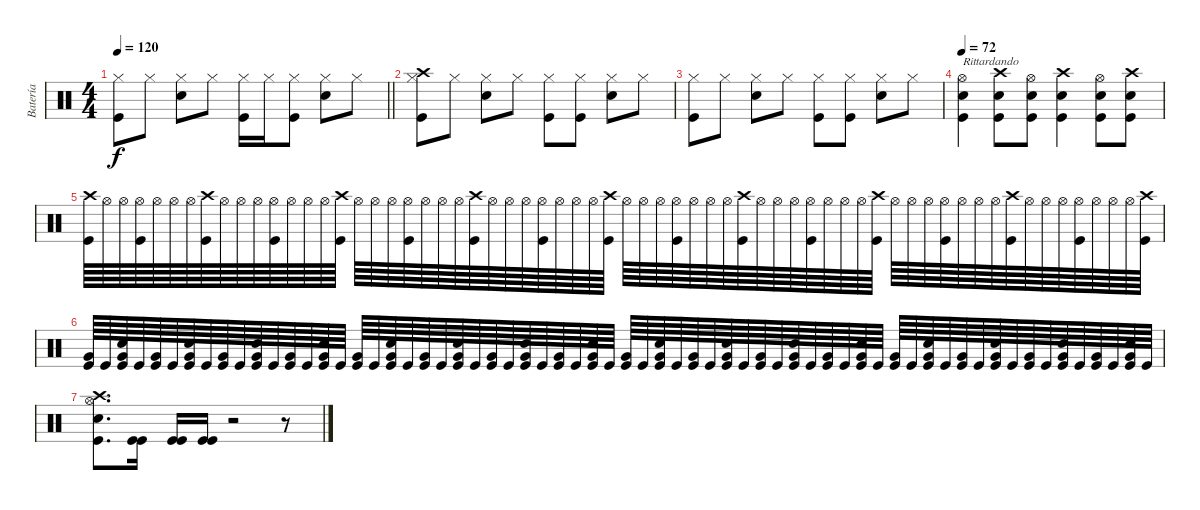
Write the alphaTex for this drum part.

\track ("Batería" "Batería") {instrument percussion}
\staff {score}
\articulation defaults
\ts (4 4)
\tempo 120
\clef neutral
\barLineRight lightlight
\ks c
("Hi-Hat (closed)" "Kick (hit)").8{dy f} "Hi-Hat (closed)".8 ("Hi-Hat (closed)" "Electric Snare (hit)").8 "Hi-Hat (closed)".8 ("Hi-Hat (closed)" "Kick (hit)").16 "Hi-Hat (closed)".16 ("Hi-Hat (closed)" "Kick (hit)").8 ("Hi-Hat (closed)" "Electric Snare (hit)").8 "Hi-Hat (closed)".8 |
("Hi-Hat (closed)" "Kick (hit)" "Crash high (hit)").8 "Hi-Hat (closed)".8 ("Hi-Hat (closed)" "Electric Snare (hit)").8 "Hi-Hat (closed)".8 ("Hi-Hat (closed)" "Kick (hit)").8 ("Hi-Hat (closed)" "Kick (hit)").8 ("Hi-Hat (closed)" "Electric Snare (hit)").8 "Hi-Hat (closed)".8 |
("Hi-Hat (closed)" "Kick (hit)").8 "Hi-Hat (closed)".8 ("Hi-Hat (closed)" "Electric Snare (hit)").8 "Hi-Hat (closed)".8 ("Hi-Hat (closed)" "Kick (hit)").8 ("Hi-Hat (closed)" "Kick (hit)").8 ("Hi-Hat (closed)" "Electric Snare (hit)").8 "Hi-Hat (closed)".8 |
\tempo 72
("Kick (hit)" "Electric Snare (hit)" "Hi-Hat (open)").4{txt "Rittardando"} ("Kick (hit)" "Crash high (hit)" "Electric Snare (hit)").8 ("Kick (hit)" "Hi-Hat (open)" "Electric Snare (hit)").8 ("Kick (hit)" "Electric Snare (hit)" "Crash high (hit)").4 ("Kick (hit)" "Hi-Hat (open)" "Electric Snare (hit)").8 ("Kick (hit)" "Crash high (hit)" "Electric Snare (hit)").8 |
("Crash high (hit)" "Kick (hit)").64 "Hi-Hat (open)".64 "Hi-Hat (open)".64 ("Hi-Hat (open)" "Kick (hit)").64 "Hi-Hat (open)".64 "Hi-Hat (open)".64 "Hi-Hat (open)".64 ("Crash high (hit)" "Kick (hit)").64 "Hi-Hat (open)".64 "Hi-Hat (open)".64 "Hi-Hat (open)".64 ("Hi-Hat (open)" "Kick (hit)").64 "Hi-Hat (open)".64 "Hi-Hat (open)".64 "Hi-Hat (open)".64 ("Crash high (hit)" "Kick (hit)").64 "Hi-Hat (open)".64 "Hi-Hat (open)".64 "Hi-Hat (open)".64 ("Hi-Hat (open)" "Kick (hit)").64 "Hi-Hat (open)".64 "Hi-Hat (open)".64 "Hi-Hat (open)".64 ("Crash high (hit)" "Kick (hit)").64 "Hi-Hat (open)".64 "Hi-Hat (open)".64 "Hi-Hat (open)".64 ("Hi-Hat (open)" "Kick (hit)").64 "Hi-Hat (open)".64 "Hi-Hat (open)".64 "Hi-Hat (open)".64 ("Crash high (hit)" "Kick (hit)").64 "Hi-Hat (open)".64 "Hi-Hat (open)".64 "Hi-Hat (open)".64 ("Hi-Hat (open)" "Kick (hit)").64 "Hi-Hat (open)".64 "Hi-Hat (open)".64 "Hi-Hat (open)".64 ("Crash high (hit)" "Kick (hit)").64 "Hi-Hat (open)".64 "Hi-Hat (open)".64 "Hi-Hat (open)".64 ("Hi-Hat (open)" "Kick (hit)").64 "Hi-Hat (open)".64 "Hi-Hat (open)".64 "Hi-Hat (open)".64 ("Crash high (hit)" "Kick (hit)").64 "Hi-Hat (open)".64 "Hi-Hat (open)".64 "Hi-Hat (open)".64 ("Hi-Hat (open)" "Kick (hit)").64 "Hi-Hat (open)".64 "Hi-Hat (open)".64 "Hi-Hat (open)".64 ("Crash high (hit)" "Kick (hit)").64 "Hi-Hat (open)".64 "Hi-Hat (open)".64 "Hi-Hat (open)".64 ("Hi-Hat (open)" "Kick (hit)").64 "Hi-Hat (open)".64 "Hi-Hat (open)".64 "Hi-Hat (open)".64 ("Crash high (hit)" "Kick (hit)").64 |
("Kick (hit)" "Very Low Tom (hit)").64 "Kick (hit)".64 ("Kick (hit)" "Very Low Tom (hit)" "Electric Snare (hit)").64 "Kick (hit)".64 ("Kick (hit)" "Very Low Tom (hit)").64 "Kick (hit)".64 ("Kick (hit)" "Very Low Tom (hit)" "Electric Snare (hit)").64 "Kick (hit)".64 ("Kick (hit)" "Very Low Tom (hit)").64 "Kick (hit)".64 ("Kick (hit)" "Very Low Tom (hit)" "Electric Snare (hit)").64 "Kick (hit)".64 ("Kick (hit)" "Very Low Tom (hit)").64 "Kick (hit)".64 ("Kick (hit)" "Very Low Tom (hit)" "Electric Snare (hit)").64 "Kick (hit)".64 ("Kick (hit)" "Very Low Tom (hit)").64 "Kick (hit)".64 ("Kick (hit)" "Very Low Tom (hit)" "Electric Snare (hit)").64 "Kick (hit)".64 ("Kick (hit)" "Very Low Tom (hit)").64 "Kick (hit)".64 ("Kick (hit)" "Very Low Tom (hit)" "Electric Snare (hit)").64 "Kick (hit)".64 ("Kick (hit)" "Very Low Tom (hit)").64 "Kick (hit)".64 ("Kick (hit)" "Very Low Tom (hit)" "Electric Snare (hit)").64 "Kick (hit)".64 ("Kick (hit)" "Very Low Tom (hit)").64 "Kick (hit)".64 ("Kick (hit)" "Very Low Tom (hit)" "Electric Snare (hit)").64 "Kick (hit)".64 ("Kick (hit)" "Very Low Tom (hit)").64 "Kick (hit)".64 ("Kick (hit)" "Very Low Tom (hit)" "Electric Snare (hit)").64 "Kick (hit)".64 ("Kick (hit)" "Very Low Tom (hit)").64 "Kick (hit)".64 ("Kick (hit)" "Very Low Tom (hit)" "Electric Snare (hit)").64 "Kick (hit)".64 ("Kick (hit)" "Very Low Tom (hit)").64 "Kick (hit)".64 ("Kick (hit)" "Very Low Tom (hit)" "Electric Snare (hit)").64 "Kick (hit)".64 ("Kick (hit)" "Very Low Tom (hit)").64 "Kick (hit)".64 ("Kick (hit)" "Very Low Tom (hit)" "Electric Snare (hit)").64 "Kick (hit)".64 ("Kick (hit)" "Very Low Tom (hit)").64 "Kick (hit)".64 ("Kick (hit)" "Very Low Tom (hit)" "Electric Snare (hit)").64 "Kick (hit)".64 ("Kick (hit)" "Very Low Tom (hit)").64 "Kick (hit)".64 ("Kick (hit)" "Very Low Tom (hit)" "Electric Snare (hit)").64 "Kick (hit)".64 ("Kick (hit)" "Very Low Tom (hit)").64 "Kick (hit)".64 ("Kick (hit)" "Very Low Tom (hit)" "Electric Snare (hit)").64 "Kick (hit)".64 ("Kick (hit)" "Very Low Tom (hit)").64 "Kick (hit)".64 ("Kick (hit)" "Very Low Tom (hit)" "Electric Snare (hit)").64 "Kick (hit)".64 |
("Crash high (hit)" "Hi-Hat (open)" "Electric Snare (hit)" "Kick (hit)").8{d} ("Kick (hit)" "Kick (hit)").16 ("Kick (hit)" "Kick (hit)").16 ("Kick (hit)" "Kick (hit)").16 r.2 r.8
